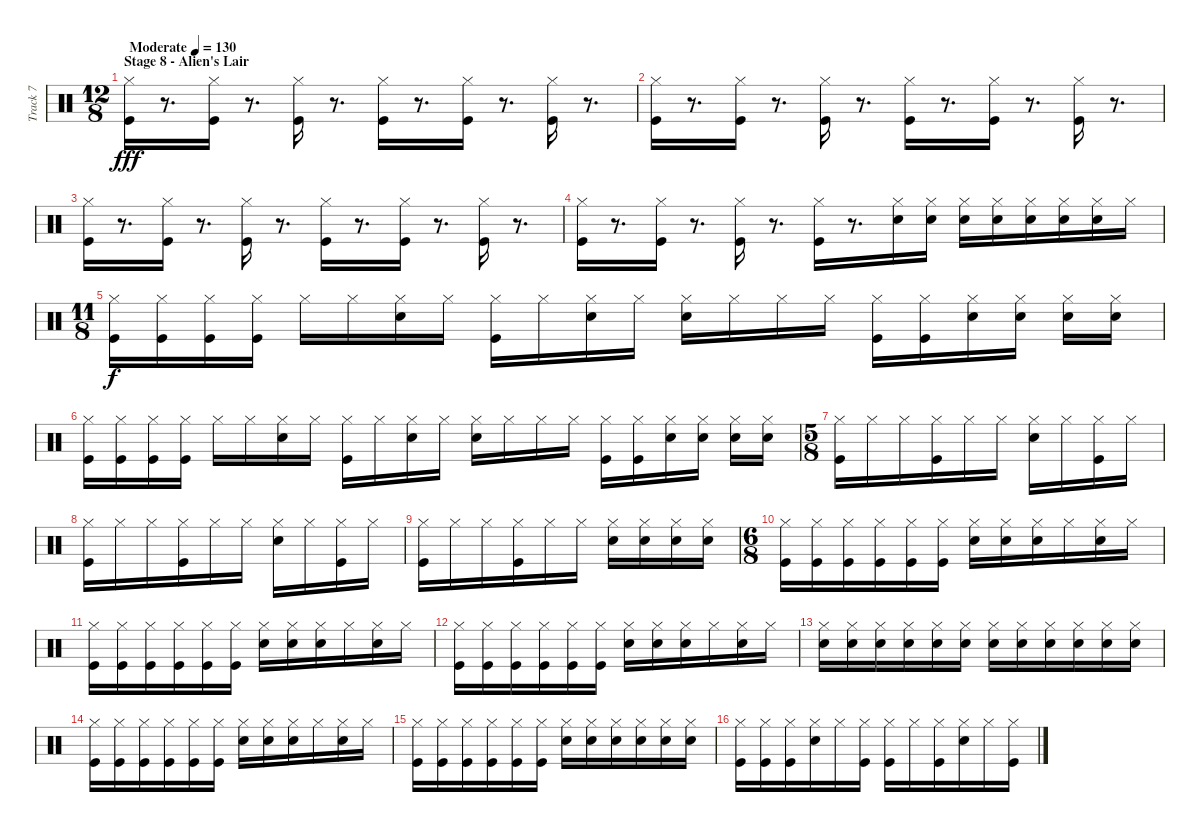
\track ("Track 7" "Track 7") {instrument percussion}
\staff {score}
\articulation defaults
\ts (12 8)
\section ("" "Stage 8 - Alien's Lair")
\tempo (130 "Moderate")
\tempo 132
\tempo (130 "Moderate")
\clef neutral
\ks c
("Kick (hit)" "Hi-Hat (closed)").16{dy fff} r.8{d} ("Kick (hit)" "Hi-Hat (closed)").16 r.8{d} ("Kick (hit)" "Hi-Hat (closed)").16 r.8{d} ("Kick (hit)" "Hi-Hat (closed)").16 r.8{d} ("Kick (hit)" "Hi-Hat (closed)").16 r.8{d} ("Kick (hit)" "Hi-Hat (closed)").16 r.8{d} |
("Kick (hit)" "Hi-Hat (closed)").16 r.8{d} ("Kick (hit)" "Hi-Hat (closed)").16 r.8{d} ("Kick (hit)" "Hi-Hat (closed)").16 r.8{d} ("Kick (hit)" "Hi-Hat (closed)").16 r.8{d} ("Kick (hit)" "Hi-Hat (closed)").16 r.8{d} ("Kick (hit)" "Hi-Hat (closed)").16 r.8{d} |
("Kick (hit)" "Hi-Hat (closed)").16 r.8{d} ("Kick (hit)" "Hi-Hat (closed)").16 r.8{d} ("Kick (hit)" "Hi-Hat (closed)").16 r.8{d} ("Kick (hit)" "Hi-Hat (closed)").16 r.8{d} ("Kick (hit)" "Hi-Hat (closed)").16 r.8{d} ("Kick (hit)" "Hi-Hat (closed)").16 r.8{d} |
("Kick (hit)" "Hi-Hat (closed)").16 r.8{d} ("Kick (hit)" "Hi-Hat (closed)").16 r.8{d} ("Kick (hit)" "Hi-Hat (closed)").16 r.8{d} ("Kick (hit)" "Hi-Hat (closed)").16 r.8{d} ("Hi-Hat (closed)" "Snare (hit) 2").16 ("Hi-Hat (closed)" "Snare (hit) 2").16 ("Hi-Hat (closed)" "Snare (hit) 2").16 ("Hi-Hat (closed)" "Snare (hit) 2").16 ("Hi-Hat (closed)" "Snare (hit) 2").16 ("Hi-Hat (closed)" "Snare (hit) 2").16 ("Hi-Hat (closed)" "Snare (hit) 2").16 "Hi-Hat (closed)".16 |
\ts (11 8)
("Kick (hit)" "Hi-Hat (closed)").16{dy f} ("Kick (hit)" "Hi-Hat (closed)").16 ("Kick (hit)" "Hi-Hat (closed)").16 ("Kick (hit)" "Hi-Hat (closed)").16 "Hi-Hat (closed)".16 "Hi-Hat (closed)".16 ("Snare (hit) 2" "Hi-Hat (closed)").16 "Hi-Hat (closed)".16 ("Kick (hit)" "Hi-Hat (closed)").16 "Hi-Hat (closed)".16 ("Snare (hit) 2" "Hi-Hat (closed)").16 "Hi-Hat (closed)".16 ("Snare (hit) 2" "Hi-Hat (closed)").16 "Hi-Hat (closed)".16 "Hi-Hat (closed)".16 "Hi-Hat (closed)".16 ("Kick (hit)" "Hi-Hat (closed)").16 ("Kick (hit)" "Hi-Hat (closed)").16 ("Snare (hit) 2" "Hi-Hat (closed)").16 ("Snare (hit) 2" "Hi-Hat (closed)").16 ("Snare (hit) 2" "Hi-Hat (closed)").16 ("Snare (hit) 2" "Hi-Hat (closed)").16 |
("Kick (hit)" "Hi-Hat (closed)").16 ("Kick (hit)" "Hi-Hat (closed)").16 ("Kick (hit)" "Hi-Hat (closed)").16 ("Kick (hit)" "Hi-Hat (closed)").16 "Hi-Hat (closed)".16 "Hi-Hat (closed)".16 ("Snare (hit) 2" "Hi-Hat (closed)").16 "Hi-Hat (closed)".16 ("Kick (hit)" "Hi-Hat (closed)").16 "Hi-Hat (closed)".16 ("Snare (hit) 2" "Hi-Hat (closed)").16 "Hi-Hat (closed)".16 ("Snare (hit) 2" "Hi-Hat (closed)").16 "Hi-Hat (closed)".16 "Hi-Hat (closed)".16 "Hi-Hat (closed)".16 ("Kick (hit)" "Hi-Hat (closed)").16 ("Kick (hit)" "Hi-Hat (closed)").16 ("Snare (hit) 2" "Hi-Hat (closed)").16 ("Snare (hit) 2" "Hi-Hat (closed)").16 ("Snare (hit) 2" "Hi-Hat (closed)").16 ("Snare (hit) 2" "Hi-Hat (closed)").16 |
\ts (5 8)
("Hi-Hat (closed)" "Kick (hit)").16 "Hi-Hat (closed)".16 "Hi-Hat (closed)".16 ("Kick (hit)" "Hi-Hat (closed)").16 "Hi-Hat (closed)".16 "Hi-Hat (closed)".16 ("Snare (hit) 2" "Hi-Hat (closed)").16 "Hi-Hat (closed)".16 ("Kick (hit)" "Hi-Hat (closed)").16 "Hi-Hat (closed)".16 |
("Hi-Hat (closed)" "Kick (hit)").16 "Hi-Hat (closed)".16 "Hi-Hat (closed)".16 ("Kick (hit)" "Hi-Hat (closed)").16 "Hi-Hat (closed)".16 "Hi-Hat (closed)".16 ("Snare (hit) 2" "Hi-Hat (closed)").16 "Hi-Hat (closed)".16 ("Kick (hit)" "Hi-Hat (closed)").16 "Hi-Hat (closed)".16 |
("Hi-Hat (closed)" "Kick (hit)").16 "Hi-Hat (closed)".16 "Hi-Hat (closed)".16 ("Kick (hit)" "Hi-Hat (closed)").16 "Hi-Hat (closed)".16 "Hi-Hat (closed)".16 ("Hi-Hat (closed)" "Snare (hit) 2").16 ("Hi-Hat (closed)" "Snare (hit) 2").16 ("Hi-Hat (closed)" "Snare (hit) 2").16 ("Hi-Hat (closed)" "Snare (hit) 2").16 |
\ts (6 8)
("Hi-Hat (closed)" "Kick (hit)").16 ("Kick (hit)" "Hi-Hat (closed)").16 ("Kick (hit)" "Hi-Hat (closed)").16 ("Kick (hit)" "Hi-Hat (closed)").16 ("Kick (hit)" "Hi-Hat (closed)").16 ("Kick (hit)" "Hi-Hat (closed)").16 ("Snare (hit) 2" "Hi-Hat (closed)").16 ("Snare (hit) 2" "Hi-Hat (closed)").16 ("Snare (hit) 2" "Hi-Hat (closed)").16 "Hi-Hat (closed)".16 ("Snare (hit) 2" "Hi-Hat (closed)").16 "Hi-Hat (closed)".16 |
("Hi-Hat (closed)" "Kick (hit)").16 ("Kick (hit)" "Hi-Hat (closed)").16 ("Kick (hit)" "Hi-Hat (closed)").16 ("Kick (hit)" "Hi-Hat (closed)").16 ("Kick (hit)" "Hi-Hat (closed)").16 ("Kick (hit)" "Hi-Hat (closed)").16 ("Snare (hit) 2" "Hi-Hat (closed)").16 ("Snare (hit) 2" "Hi-Hat (closed)").16 ("Snare (hit) 2" "Hi-Hat (closed)").16 "Hi-Hat (closed)".16 ("Snare (hit) 2" "Hi-Hat (closed)").16 "Hi-Hat (closed)".16 |
("Hi-Hat (closed)" "Kick (hit)").16 ("Kick (hit)" "Hi-Hat (closed)").16 ("Kick (hit)" "Hi-Hat (closed)").16 ("Kick (hit)" "Hi-Hat (closed)").16 ("Kick (hit)" "Hi-Hat (closed)").16 ("Kick (hit)" "Hi-Hat (closed)").16 ("Snare (hit) 2" "Hi-Hat (closed)").16 ("Snare (hit) 2" "Hi-Hat (closed)").16 ("Snare (hit) 2" "Hi-Hat (closed)").16 "Hi-Hat (closed)".16 ("Snare (hit) 2" "Hi-Hat (closed)").16 "Hi-Hat (closed)".16 |
("Hi-Hat (closed)" "Snare (hit) 2").16 ("Hi-Hat (closed)" "Snare (hit) 2").16 ("Hi-Hat (closed)" "Snare (hit) 2").16 ("Hi-Hat (closed)" "Snare (hit) 2").16 ("Hi-Hat (closed)" "Snare (hit) 2").16 ("Hi-Hat (closed)" "Snare (hit) 2").16 ("Hi-Hat (closed)" "Snare (hit) 2").16 ("Hi-Hat (closed)" "Snare (hit) 2").16 ("Hi-Hat (closed)" "Snare (hit) 2").16 ("Hi-Hat (closed)" "Snare (hit) 2").16 ("Hi-Hat (closed)" "Snare (hit) 2").16 ("Hi-Hat (closed)" "Snare (hit) 2").16 |
("Hi-Hat (closed)" "Kick (hit)").16 ("Kick (hit)" "Hi-Hat (closed)").16 ("Kick (hit)" "Hi-Hat (closed)").16 ("Kick (hit)" "Hi-Hat (closed)").16 ("Kick (hit)" "Hi-Hat (closed)").16 ("Kick (hit)" "Hi-Hat (closed)").16 ("Snare (hit) 2" "Hi-Hat (closed)").16 ("Snare (hit) 2" "Hi-Hat (closed)").16 ("Snare (hit) 2" "Hi-Hat (closed)").16 "Hi-Hat (closed)".16 ("Snare (hit) 2" "Hi-Hat (closed)").16 "Hi-Hat (closed)".16 |
("Hi-Hat (closed)" "Kick (hit)").16 ("Kick (hit)" "Hi-Hat (closed)").16 ("Kick (hit)" "Hi-Hat (closed)").16 ("Kick (hit)" "Hi-Hat (closed)").16 ("Kick (hit)" "Hi-Hat (closed)").16 ("Kick (hit)" "Hi-Hat (closed)").16 ("Hi-Hat (closed)" "Snare (hit) 2").16 ("Hi-Hat (closed)" "Snare (hit) 2").16 ("Hi-Hat (closed)" "Snare (hit) 2").16 ("Hi-Hat (closed)" "Snare (hit) 2").16 ("Hi-Hat (closed)" "Snare (hit) 2").16 ("Hi-Hat (closed)" "Snare (hit) 2").16 |
("Hi-Hat (closed)" "Kick (hit)").16 ("Kick (hit)" "Hi-Hat (closed)").16 ("Kick (hit)" "Hi-Hat (closed)").16 ("Snare (hit) 2" "Hi-Hat (closed)").16 "Hi-Hat (closed)".16 ("Kick (hit)" "Hi-Hat (closed)").16 ("Kick (hit)" "Hi-Hat (closed)").16 "Hi-Hat (closed)".16 ("Kick (hit)" "Hi-Hat (closed)").16 ("Snare (hit) 2" "Hi-Hat (closed)").16 "Hi-Hat (closed)".16 ("Kick (hit)" "Hi-Hat (closed)").16
